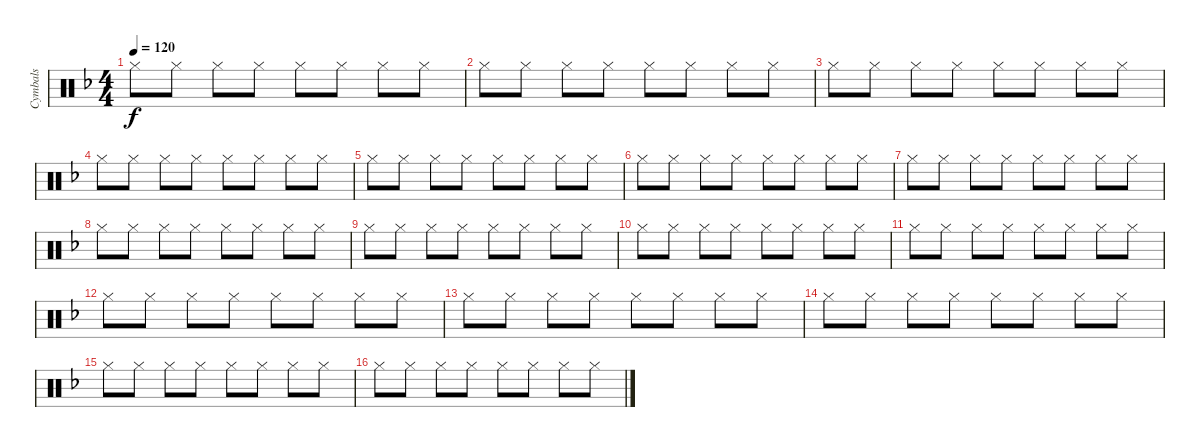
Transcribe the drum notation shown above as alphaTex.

\track ("Cymbals" "Cymbals") {instrument percussion}
\staff {score}
\articulation defaults
\ts (4 4)
\tempo 120
\clef neutral
\ks dminor "Hi-Hat (closed)".8{dy f} "Hi-Hat (closed)".8 "Hi-Hat (closed)".8 "Hi-Hat (closed)".8 "Hi-Hat (closed)".8 "Hi-Hat (closed)".8 "Hi-Hat (closed)".8 "Hi-Hat (closed)".8
|
"Hi-Hat (closed)".8 "Hi-Hat (closed)".8 "Hi-Hat (closed)".8 "Hi-Hat (closed)".8 "Hi-Hat (closed)".8 "Hi-Hat (closed)".8 "Hi-Hat (closed)".8 "Hi-Hat (closed)".8 |
"Hi-Hat (closed)".8 "Hi-Hat (closed)".8 "Hi-Hat (closed)".8 "Hi-Hat (closed)".8 "Hi-Hat (closed)".8 "Hi-Hat (closed)".8 "Hi-Hat (closed)".8 "Hi-Hat (closed)".8 |
"Hi-Hat (closed)".8 "Hi-Hat (closed)".8 "Hi-Hat (closed)".8 "Hi-Hat (closed)".8 "Hi-Hat (closed)".8 "Hi-Hat (closed)".8 "Hi-Hat (closed)".8 "Hi-Hat (closed)".8 |
"Hi-Hat (closed)".8 "Hi-Hat (closed)".8 "Hi-Hat (closed)".8 "Hi-Hat (closed)".8 "Hi-Hat (closed)".8 "Hi-Hat (closed)".8 "Hi-Hat (closed)".8 "Hi-Hat (closed)".8 |
"Hi-Hat (closed)".8 "Hi-Hat (closed)".8 "Hi-Hat (closed)".8 "Hi-Hat (closed)".8 "Hi-Hat (closed)".8 "Hi-Hat (closed)".8 "Hi-Hat (closed)".8 "Hi-Hat (closed)".8 |
"Hi-Hat (closed)".8 "Hi-Hat (closed)".8 "Hi-Hat (closed)".8 "Hi-Hat (closed)".8 "Hi-Hat (closed)".8 "Hi-Hat (closed)".8 "Hi-Hat (closed)".8 "Hi-Hat (closed)".8 |
"Hi-Hat (closed)".8 "Hi-Hat (closed)".8 "Hi-Hat (closed)".8 "Hi-Hat (closed)".8 "Hi-Hat (closed)".8 "Hi-Hat (closed)".8 "Hi-Hat (closed)".8 "Hi-Hat (closed)".8 |
"Hi-Hat (closed)".8 "Hi-Hat (closed)".8 "Hi-Hat (closed)".8 "Hi-Hat (closed)".8 "Hi-Hat (closed)".8 "Hi-Hat (closed)".8 "Hi-Hat (closed)".8 "Hi-Hat (closed)".8 |
"Hi-Hat (closed)".8 "Hi-Hat (closed)".8 "Hi-Hat (closed)".8 "Hi-Hat (closed)".8 "Hi-Hat (closed)".8 "Hi-Hat (closed)".8 "Hi-Hat (closed)".8 "Hi-Hat (closed)".8 |
"Hi-Hat (closed)".8 "Hi-Hat (closed)".8 "Hi-Hat (closed)".8 "Hi-Hat (closed)".8 "Hi-Hat (closed)".8 "Hi-Hat (closed)".8 "Hi-Hat (closed)".8 "Hi-Hat (closed)".8 |
"Hi-Hat (closed)".8 "Hi-Hat (closed)".8 "Hi-Hat (closed)".8 "Hi-Hat (closed)".8 "Hi-Hat (closed)".8 "Hi-Hat (closed)".8 "Hi-Hat (closed)".8 "Hi-Hat (closed)".8 |
"Hi-Hat (closed)".8 "Hi-Hat (closed)".8 "Hi-Hat (closed)".8 "Hi-Hat (closed)".8 "Hi-Hat (closed)".8 "Hi-Hat (closed)".8 "Hi-Hat (closed)".8 "Hi-Hat (closed)".8 |
"Hi-Hat (closed)".8 "Hi-Hat (closed)".8 "Hi-Hat (closed)".8 "Hi-Hat (closed)".8 "Hi-Hat (closed)".8 "Hi-Hat (closed)".8 "Hi-Hat (closed)".8 "Hi-Hat (closed)".8 |
"Hi-Hat (closed)".8 "Hi-Hat (closed)".8 "Hi-Hat (closed)".8 "Hi-Hat (closed)".8 "Hi-Hat (closed)".8 "Hi-Hat (closed)".8 "Hi-Hat (closed)".8 "Hi-Hat (closed)".8 |
"Hi-Hat (closed)".8 "Hi-Hat (closed)".8 "Hi-Hat (closed)".8 "Hi-Hat (closed)".8 "Hi-Hat (closed)".8 "Hi-Hat (closed)".8 "Hi-Hat (closed)".8 "Hi-Hat (closed)".8
